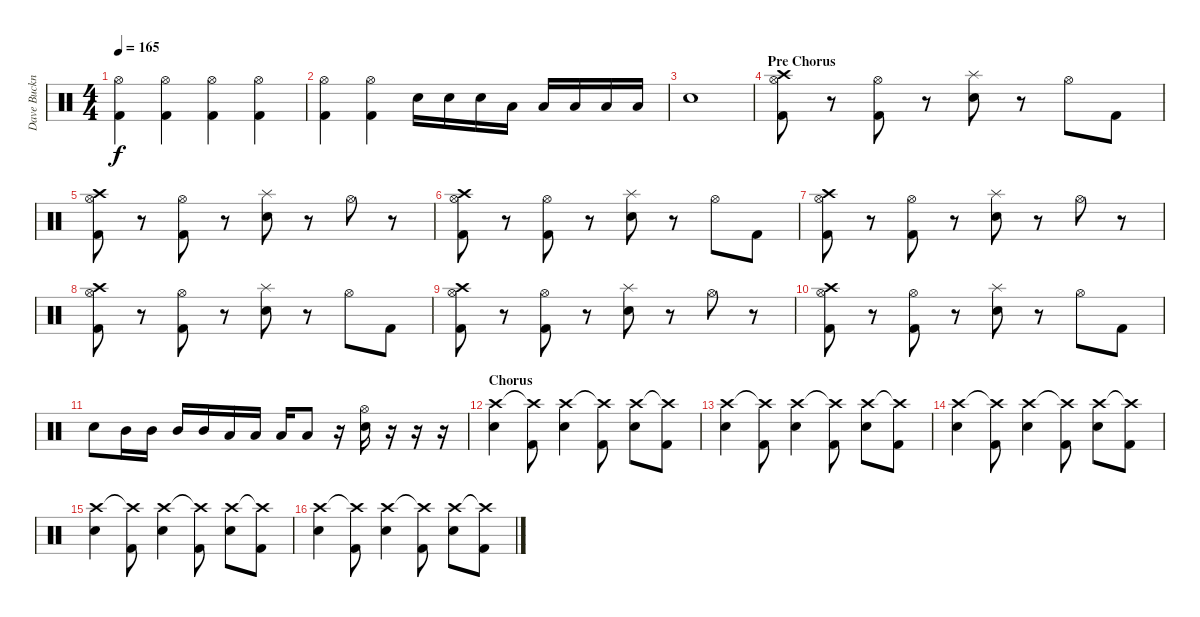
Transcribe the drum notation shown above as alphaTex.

\track ("Dave Buckner " "Dave Buckn") {instrument percussion}
\staff {score}
\articulation defaults
\ts (4 4)
\tempo 165
\clef neutral
\ks c
("Hi-Hat (open)" "Kick (hit) 2").4{dy f} ("Hi-Hat (open)" "Kick (hit) 2").4 ("Hi-Hat (open)" "Kick (hit) 2").4 ("Hi-Hat (open)" "Kick (hit) 2").4 |
("Hi-Hat (open)" "Kick (hit) 2").4 ("Hi-Hat (open)" "Kick (hit) 2").4 "Snare (hit) 2".16 "Snare (hit) 2".16 "Snare (hit) 2".16 "Low Tom (hit)".16 "Low Tom (hit)".16 "Low Tom (hit)".16 "Low Tom (hit)".16 "Low Tom (hit)".16 |
"Snare (hit) 2".1 |
\section ("" "Pre Chorus")
("Crash high (hit)" "Hi-Hat (open)" "Kick (hit) 2").8 r.8 ("Hi-Hat (open)" "Kick (hit) 2").8 r.8 ("Splash (hit)" "Snare (hit) 2").8 r.8 "Hi-Hat (open)".8 "Kick (hit) 2".8 |
("Crash high (hit)" "Hi-Hat (open)" "Kick (hit) 2").8 r.8 ("Hi-Hat (open)" "Kick (hit) 2").8 r.8 ("Splash (hit)" "Snare (hit) 2").8 r.8 "Hi-Hat (open)".8 r.8 |
("Crash high (hit)" "Hi-Hat (open)" "Kick (hit) 2").8 r.8 ("Hi-Hat (open)" "Kick (hit) 2").8 r.8 ("Splash (hit)" "Snare (hit) 2").8 r.8 "Hi-Hat (open)".8 "Kick (hit) 2".8 |
("Crash high (hit)" "Hi-Hat (open)" "Kick (hit) 2").8 r.8 ("Hi-Hat (open)" "Kick (hit) 2").8 r.8 ("Splash (hit)" "Snare (hit) 2").8 r.8 "Hi-Hat (open)".8 r.8 |
("Crash high (hit)" "Hi-Hat (open)" "Kick (hit) 2").8 r.8 ("Hi-Hat (open)" "Kick (hit) 2").8 r.8 ("Splash (hit)" "Snare (hit) 2").8 r.8 "Hi-Hat (open)".8 "Kick (hit) 2".8 |
("Crash high (hit)" "Hi-Hat (open)" "Kick (hit) 2").8 r.8 ("Hi-Hat (open)" "Kick (hit) 2").8 r.8 ("Splash (hit)" "Snare (hit) 2").8 r.8 "Hi-Hat (open)".8 r.8 |
("Crash high (hit)" "Hi-Hat (open)" "Kick (hit) 2").8 r.8 ("Hi-Hat (open)" "Kick (hit) 2").8 r.8 ("Splash (hit)" "Snare (hit) 2").8 r.8 "Hi-Hat (open)".8 "Kick (hit) 2".8 |
"Snare (hit) 2".8 "Mid Tom (hit)".16 "Mid Tom (hit)".16 "Mid Tom (hit)".16 "Mid Tom (hit)".16 "Low Tom (hit)".16 "Low Tom (hit)".16 "Low Tom (hit)".16 "Low Tom (hit)".8 r.16 ("Hi-Hat (open)" "Snare (hit) 2").16 r.16 r.16 r.16 |
\section ("" "Chorus")
("Crash high (hit)" "Snare (hit) 2").4 ("Crash high (hit)"{t} "Kick (hit) 2").8 ("Crash high (hit)" "Snare (hit) 2").4 ("Crash high (hit)"{t} "Kick (hit) 2").8 ("Crash high (hit)" "Snare (hit) 2").8 ("Crash high (hit)"{t} "Kick (hit) 2").8 |
("Crash high (hit)" "Snare (hit) 2").4 ("Crash high (hit)"{t} "Kick (hit) 2").8 ("Crash high (hit)" "Snare (hit) 2").4 ("Crash high (hit)"{t} "Kick (hit) 2").8 ("Crash high (hit)" "Snare (hit) 2").8 ("Crash high (hit)"{t} "Kick (hit) 2").8 |
("Crash high (hit)" "Snare (hit) 2").4 ("Crash high (hit)"{t} "Kick (hit) 2").8 ("Crash high (hit)" "Snare (hit) 2").4 ("Crash high (hit)"{t} "Kick (hit) 2").8 ("Crash high (hit)" "Snare (hit) 2").8 ("Crash high (hit)"{t} "Kick (hit) 2").8 |
("Crash high (hit)" "Snare (hit) 2").4 ("Crash high (hit)"{t} "Kick (hit) 2").8 ("Crash high (hit)" "Snare (hit) 2").4 ("Crash high (hit)"{t} "Kick (hit) 2").8 ("Crash high (hit)" "Snare (hit) 2").8 ("Crash high (hit)"{t} "Kick (hit) 2").8 |
("Crash high (hit)" "Snare (hit) 2").4 ("Crash high (hit)"{t} "Kick (hit) 2").8 ("Crash high (hit)" "Snare (hit) 2").4 ("Crash high (hit)"{t} "Kick (hit) 2").8 ("Crash high (hit)" "Snare (hit) 2").8 ("Crash high (hit)"{t} "Kick (hit) 2").8
